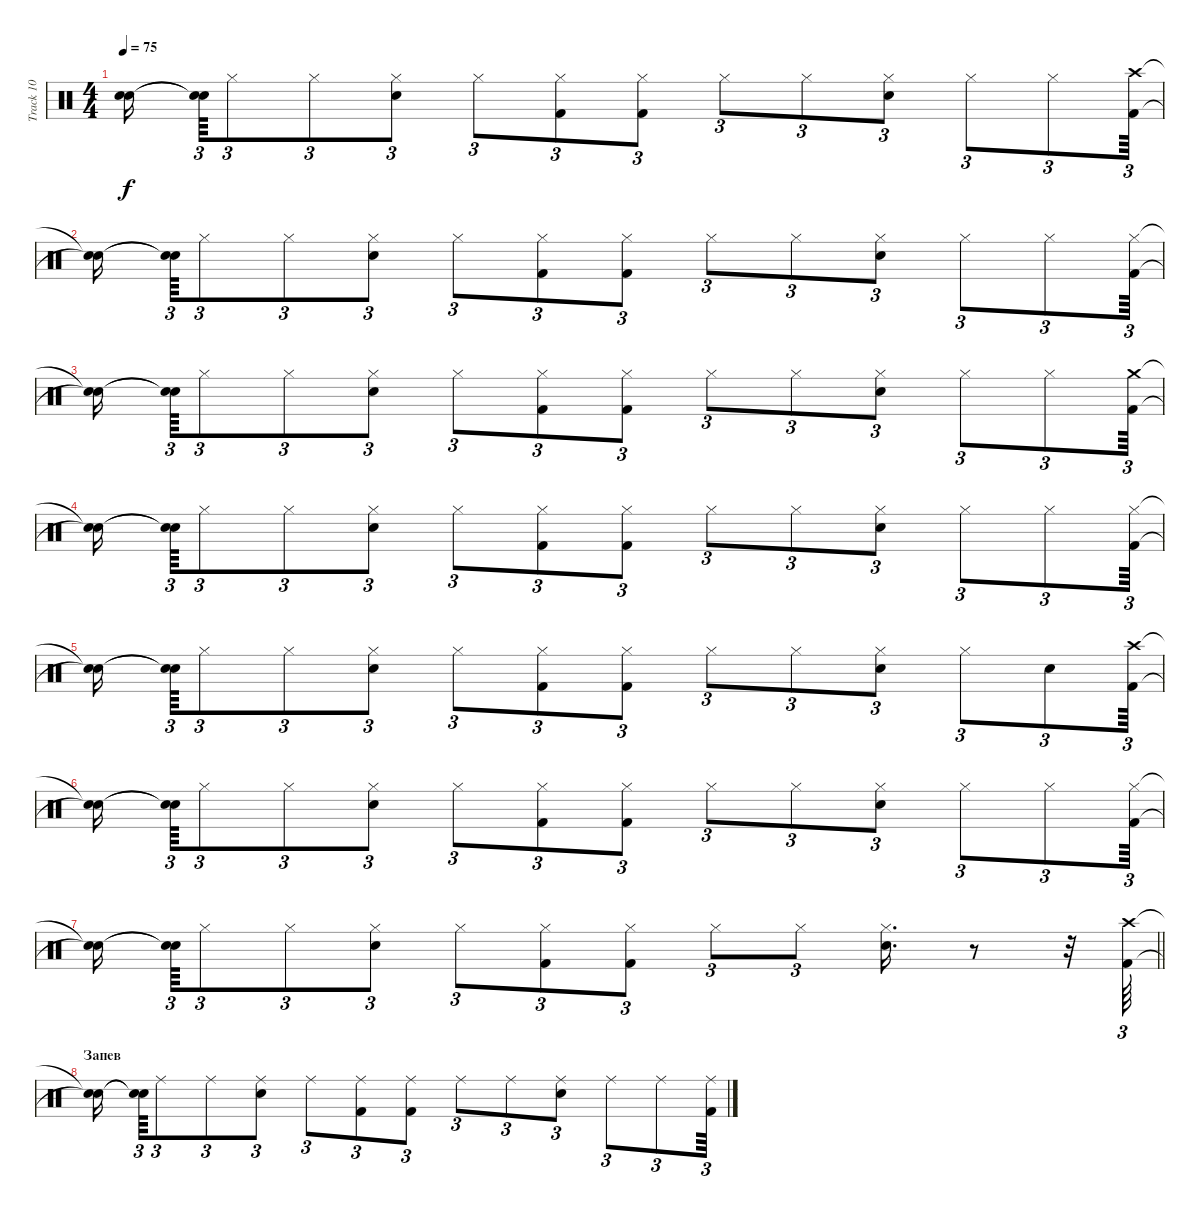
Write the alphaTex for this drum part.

\track ("Track 10" "Track 10") {instrument percussion}
\staff {score}
\articulation defaults
\ts (4 4)
\tempo 75
\clef neutral
\ks c
("Snare (hit)"{t} "Snare (hit)"{t}).16{dy f beam splitsecondary} ("Snare (hit)"{t} "Snare (hit)"{t}).64{tu (3 2)} "Hi-Hat (closed)".8{tu (3 2)} "Hi-Hat (closed)".8{tu (3 2)} ("Hi-Hat (closed)" "Snare (hit) 2").8{tu (3 2)} "Hi-Hat (closed)".8{tu (3 2)} ("Hi-Hat (closed)" "Kick (hit) 2").8{tu (3 2)} ("Hi-Hat (closed)" "Kick (hit) 2").8{tu (3 2)} "Hi-Hat (closed)".8{tu (3 2)} "Hi-Hat (closed)".8{tu (3 2)} ("Hi-Hat (closed)" "Snare (hit) 2").8{tu (3 2)} "Hi-Hat (closed)".8{tu (3 2)} "Hi-Hat (closed)".8{tu (3 2)} ("Crash high (hit)" "Kick (hit) 2").64{tu (3 2)} |
("Snare (hit)"{t} "Snare (hit)"{t}).16{beam splitsecondary} ("Snare (hit)"{t} "Snare (hit)"{t}).64{tu (3 2)} "Hi-Hat (closed)".8{tu (3 2)} "Hi-Hat (closed)".8{tu (3 2)} ("Snare (hit) 2" "Hi-Hat (closed)").8{tu (3 2)} "Hi-Hat (closed)".8{tu (3 2)} ("Hi-Hat (closed)" "Kick (hit) 2").8{tu (3 2)} ("Kick (hit) 2" "Hi-Hat (closed)").8{tu (3 2)} "Hi-Hat (closed)".8{tu (3 2)} "Hi-Hat (closed)".8{tu (3 2)} ("Snare (hit) 2" "Hi-Hat (closed)").8{tu (3 2)} "Hi-Hat (closed)".8{tu (3 2)} "Hi-Hat (closed)".8{tu (3 2)} ("Hi-Hat (closed)" "Kick (hit) 2").64{tu (3 2)} |
("Snare (hit)"{t} "Snare (hit)"{t}).16{beam splitsecondary} ("Snare (hit)"{t} "Snare (hit)"{t}).64{tu (3 2)} "Hi-Hat (closed)".8{tu (3 2)} "Hi-Hat (closed)".8{tu (3 2)} ("Hi-Hat (closed)" "Snare (hit) 2").8{tu (3 2)} "Hi-Hat (closed)".8{tu (3 2)} ("Kick (hit) 2" "Hi-Hat (closed)").8{tu (3 2)} ("Hi-Hat (closed)" "Kick (hit) 2").8{tu (3 2)} "Hi-Hat (closed)".8{tu (3 2)} "Hi-Hat (closed)".8{tu (3 2)} ("Hi-Hat (closed)" "Snare (hit) 2").8{tu (3 2)} "Hi-Hat (closed)".8{tu (3 2)} "Hi-Hat (closed)".8{tu (3 2)} ("Crash medium (hit)" "Kick (hit) 2").64{tu (3 2)} |
("Snare (hit)"{t} "Snare (hit)"{t}).16{beam splitsecondary} ("Snare (hit)"{t} "Snare (hit)"{t}).64{tu (3 2)} "Hi-Hat (closed)".8{tu (3 2)} "Hi-Hat (closed)".8{tu (3 2)} ("Hi-Hat (closed)" "Snare (hit) 2").8{tu (3 2)} "Hi-Hat (closed)".8{tu (3 2)} ("Kick (hit) 2" "Hi-Hat (closed)").8{tu (3 2)} ("Hi-Hat (closed)" "Kick (hit) 2").8{tu (3 2)} "Hi-Hat (closed)".8{tu (3 2)} "Hi-Hat (closed)".8{tu (3 2)} ("Hi-Hat (closed)" "Snare (hit) 2").8{tu (3 2)} "Hi-Hat (closed)".8{tu (3 2)} "Hi-Hat (closed)".8{tu (3 2)} ("Kick (hit) 2" "Hi-Hat (closed)").64{tu (3 2)} |
("Snare (hit)"{t} "Snare (hit)"{t}).16{beam splitsecondary} ("Snare (hit)"{t} "Snare (hit)"{t}).64{tu (3 2)} "Hi-Hat (closed)".8{tu (3 2)} "Hi-Hat (closed)".8{tu (3 2)} ("Hi-Hat (closed)" "Snare (hit) 2").8{tu (3 2)} "Hi-Hat (closed)".8{tu (3 2)} ("Hi-Hat (closed)" "Kick (hit) 2").8{tu (3 2)} ("Hi-Hat (closed)" "Kick (hit) 2").8{tu (3 2)} "Hi-Hat (closed)".8{tu (3 2)} "Hi-Hat (closed)".8{tu (3 2)} ("Snare (hit) 2" "Hi-Hat (closed)").8{tu (3 2)} "Hi-Hat (closed)".8{tu (3 2)} "Snare (hit) 2".8{tu (3 2)} ("Crash high (hit)" "Kick (hit) 2").64{tu (3 2)} |
("Snare (hit)"{t} "Snare (hit)"{t}).16{beam splitsecondary} ("Snare (hit)"{t} "Snare (hit)"{t}).64{tu (3 2)} "Hi-Hat (closed)".8{tu (3 2)} "Hi-Hat (closed)".8{tu (3 2)} ("Snare (hit) 2" "Hi-Hat (closed)").8{tu (3 2)} "Hi-Hat (closed)".8{tu (3 2)} ("Kick (hit) 2" "Hi-Hat (closed)").8{tu (3 2)} ("Kick (hit) 2" "Hi-Hat (closed)").8{tu (3 2)} "Hi-Hat (closed)".8{tu (3 2)} "Hi-Hat (closed)".8{tu (3 2)} ("Snare (hit) 2" "Hi-Hat (closed)").8{tu (3 2)} "Hi-Hat (closed)".8{tu (3 2)} "Hi-Hat (closed)".8{tu (3 2)} ("Hi-Hat (closed)" "Kick (hit) 2").64{tu (3 2)} |
\barLineRight lightlight
("Snare (hit)"{t} "Snare (hit)"{t}).16{beam splitsecondary} ("Snare (hit)"{t} "Snare (hit)"{t}).64{tu (3 2)} "Hi-Hat (closed)".8{tu (3 2)} "Hi-Hat (closed)".8{tu (3 2)} ("Hi-Hat (closed)" "Snare (hit) 2").8{tu (3 2)} "Hi-Hat (closed)".8{tu (3 2)} ("Hi-Hat (closed)" "Kick (hit) 2").8{tu (3 2)} ("Kick (hit) 2" "Hi-Hat (closed)").8{tu (3 2)} "Hi-Hat (closed)".8{tu (3 2)} "Hi-Hat (closed)".8{tu (3 2)} ("Hi-Hat (closed)" "Snare (hit) 2").16{d} r.8 r.32 ("Crash high (hit)" "Kick (hit) 2").64{tu (3 2)} |
\section ("" "Запев")
("Snare (hit)"{t} "Snare (hit)"{t}).16{beam splitsecondary} ("Snare (hit)"{t} "Snare (hit)"{t}).64{tu (3 2)} "Ride (middle)".8{tu (3 2)} "Ride (middle)".8{tu (3 2)} ("Ride (middle)" "Snare (hit) 2").8{tu (3 2)} "Ride (middle)".8{tu (3 2)} ("Ride (middle)" "Kick (hit) 2").8{tu (3 2)} ("Ride (middle)" "Kick (hit) 2").8{tu (3 2)} "Ride (middle)".8{tu (3 2)} "Ride (middle)".8{tu (3 2)} ("Ride (middle)" "Snare (hit) 2").8{tu (3 2)} "Ride (middle)".8{tu (3 2)} "Ride (middle)".8{tu (3 2)} ("Ride (middle)" "Kick (hit) 2").64{tu (3 2)}
